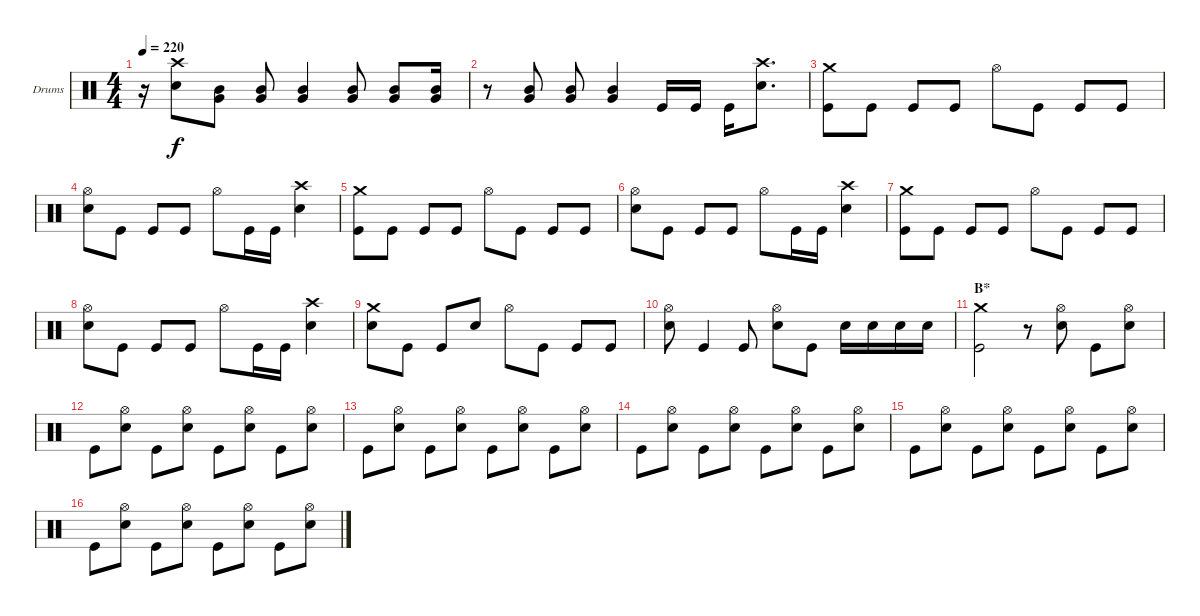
\bracketExtendMode groupsimilarinstruments
\firstSystemTrackNameOrientation horizontal
\otherSystemsTrackNameOrientation horizontal
\track ("Drumkit" "Drums") {instrument percussion}
\staff {score}
\articulation defaults
\ts (4 4)
\tempo 220
\clef neutral
\scale
0.5
\ks c
r.16{dy f} ("Crash high (hit)" "Snare (hit) 2").8 ("Mid Tom (hit)" "Very Low Tom (hit)").8 ("Mid Tom (hit)" "Very Low Tom (hit)").8 ("Mid Tom (hit)" "Very Low Tom (hit)").4 ("Mid Tom (hit)" "Very Low Tom (hit)").8 ("Mid Tom (hit)" "Very Low Tom (hit)").8 ("Mid Tom (hit)" "Very Low Tom (hit)").16 |
\scale
0.5 r.8 ("Mid Tom (hit)" "Very Low Tom (hit)").8 ("Mid Tom (hit)" "Very Low Tom (hit)").8 ("Mid Tom (hit)" "Very Low Tom (hit)").4 "Kick (hit)".16 "Kick (hit)".16 "Kick (hit)".16 ("Crash high (hit)" "Snare (hit) 2").8{d} |
\scale
0.477612 ("Crash medium (hit)" "Kick (hit)").8 "Kick (hit)".8 "Kick (hit)".8 "Kick (hit)".8 "Hi-Hat (open)".8 "Kick (hit)".8 "Kick (hit)".8 "Kick (hit)".8 |
\scale
0.522388 ("Hi-Hat (open)" "Snare (hit) 2").8 "Kick (hit)".8 "Kick (hit)".8 "Kick (hit)".8 "Hi-Hat (open)".8 "Kick (hit)".16 "Kick (hit)".16 ("Crash high (hit)" "Snare (hit) 2").4 |
\scale
0.477612 ("Crash medium (hit)" "Kick (hit)").8 "Kick (hit)".8 "Kick (hit)".8 "Kick (hit)".8 "Hi-Hat (open)".8 "Kick (hit)".8 "Kick (hit)".8 "Kick (hit)".8 |
\scale
0.522388 ("Hi-Hat (open)" "Snare (hit) 2").8 "Kick (hit)".8 "Kick (hit)".8 "Kick (hit)".8 "Hi-Hat (open)".8 "Kick (hit)".16 "Kick (hit)".16 ("Crash high (hit)" "Snare (hit) 2").4 |
\scale
0.477612 ("Crash medium (hit)" "Kick (hit)").8 "Kick (hit)".8 "Kick (hit)".8 "Kick (hit)".8 "Hi-Hat (open)".8 "Kick (hit)".8 "Kick (hit)".8 "Kick (hit)".8 |
\scale
0.522388 ("Hi-Hat (open)" "Snare (hit) 2").8 "Kick (hit)".8 "Kick (hit)".8 "Kick (hit)".8 "Hi-Hat (open)".8 "Kick (hit)".16 "Kick (hit)".16 ("Crash high (hit)" "Snare (hit) 2").4 |
\scale
0.465116 ("Crash medium (hit)" "Snare (hit) 2").8 "Kick (hit)".8 "Kick (hit)".8 "Snare (hit) 2".8 "Hi-Hat (open)".8 "Kick (hit)".8 "Kick (hit)".8 "Kick (hit)".8 |
\scale
0.534884 ("Hi-Hat (open)" "Snare (hit) 2").8 "Kick (hit)".4 "Kick (hit)".8 ("Hi-Hat (open)" "Snare (hit) 2").8 "Kick (hit)".8 "Snare (hit) 2".16 "Snare (hit) 2".16 "Snare (hit) 2".16 "Snare (hit) 2".16 |
\section ("" "B*")
\scale
0.440559 ("Crash medium (hit)" "Kick (hit)").2 r.8 ("Hi-Hat (open)" "Snare (hit) 2").8 "Kick (hit)".8 ("Hi-Hat (open)" "Snare (hit) 2").8 |
\scale
0.559441 "Kick (hit)".8 ("Hi-Hat (open)" "Snare (hit) 2").8 "Kick (hit)".8 ("Hi-Hat (open)" "Snare (hit) 2").8 "Kick (hit)".8 ("Hi-Hat (open)" "Snare (hit) 2").8 "Kick (hit)".8 ("Hi-Hat (open)" "Snare (hit) 2").8 |
\scale
0.5 "Kick (hit)".8 ("Hi-Hat (open)" "Snare (hit) 2").8 "Kick (hit)".8 ("Hi-Hat (open)" "Snare (hit) 2").8 "Kick (hit)".8 ("Hi-Hat (open)" "Snare (hit) 2").8 "Kick (hit)".8 ("Hi-Hat (open)" "Snare (hit) 2").8 |
\scale
0.5 "Kick (hit)".8 ("Hi-Hat (open)" "Snare (hit) 2").8 "Kick (hit)".8 ("Hi-Hat (open)" "Snare (hit) 2").8 "Kick (hit)".8 ("Hi-Hat (open)" "Snare (hit) 2").8 "Kick (hit)".8 ("Hi-Hat (open)" "Snare (hit) 2").8 |
\scale
0.5 "Kick (hit)".8 ("Hi-Hat (open)" "Snare (hit) 2").8 "Kick (hit)".8 ("Hi-Hat (open)" "Snare (hit) 2").8 "Kick (hit)".8 ("Hi-Hat (open)" "Snare (hit) 2").8 "Kick (hit)".8 ("Hi-Hat (open)" "Snare (hit) 2").8 |
\scale
0.5 "Kick (hit)".8 ("Hi-Hat (open)" "Snare (hit) 2").8 "Kick (hit)".8 ("Hi-Hat (open)" "Snare (hit) 2").8 "Kick (hit)".8 ("Hi-Hat (open)" "Snare (hit) 2").8 "Kick (hit)".8 ("Hi-Hat (open)" "Snare (hit) 2").8
